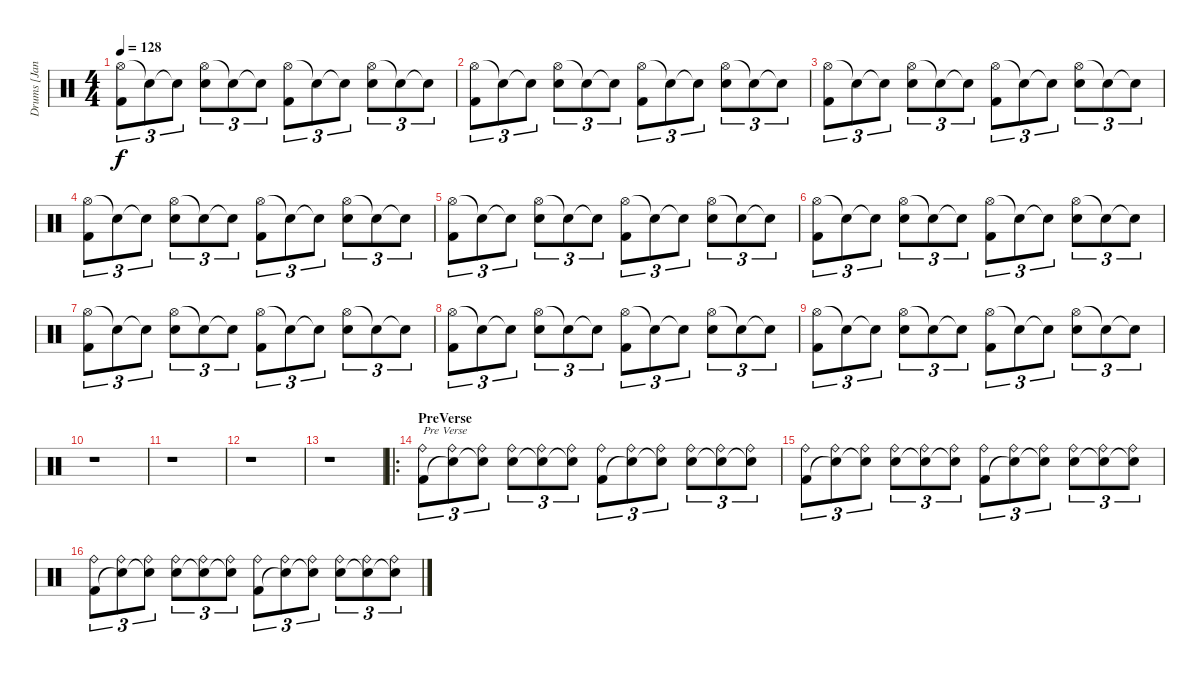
\track ("Drums [Janne Saarenpaa]" "Drums [Jan") {instrument percussion}
\staff {score}
\articulation defaults
\ts (4 4)
\tempo 128
\clef neutral
\ks c
("Hi-Hat (open)" "Kick (hit) 2").8{tu (3 2) dy f} "Snare (hit)"{t}.8{tu (3 2)} "Snare (hit)"{t}.8{tu (3 2)} ("Hi-Hat (open)" "Electric Snare (hit)").8{tu (3 2)} "Snare (hit)"{t}.8{tu (3 2)} "Snare (hit)"{t}.8{tu (3 2)} ("Hi-Hat (open)" "Kick (hit) 2").8{tu (3 2)} "Snare (hit)"{t}.8{tu (3 2)} "Snare (hit)"{t}.8{tu (3 2)} ("Hi-Hat (open)" "Electric Snare (hit)").8{tu (3 2)} "Snare (hit)"{t}.8{tu (3 2)} "Snare (hit)"{t}.8{tu (3 2)} |
("Hi-Hat (open)" "Kick (hit) 2").8{tu (3 2)} "Snare (hit)"{t}.8{tu (3 2)} "Snare (hit)"{t}.8{tu (3 2)} ("Hi-Hat (open)" "Electric Snare (hit)").8{tu (3 2)} "Snare (hit)"{t}.8{tu (3 2)} "Snare (hit)"{t}.8{tu (3 2)} ("Hi-Hat (open)" "Kick (hit) 2").8{tu (3 2)} "Snare (hit)"{t}.8{tu (3 2)} "Snare (hit)"{t}.8{tu (3 2)} ("Hi-Hat (open)" "Electric Snare (hit)").8{tu (3 2)} "Snare (hit)"{t}.8{tu (3 2)} "Snare (hit)"{t}.8{tu (3 2)} |
("Hi-Hat (open)" "Kick (hit) 2").8{tu (3 2)} "Snare (hit)"{t}.8{tu (3 2)} "Snare (hit)"{t}.8{tu (3 2)} ("Hi-Hat (open)" "Electric Snare (hit)").8{tu (3 2)} "Snare (hit)"{t}.8{tu (3 2)} "Snare (hit)"{t}.8{tu (3 2)} ("Hi-Hat (open)" "Kick (hit) 2").8{tu (3 2)} "Snare (hit)"{t}.8{tu (3 2)} "Snare (hit)"{t}.8{tu (3 2)} ("Hi-Hat (open)" "Electric Snare (hit)").8{tu (3 2)} "Snare (hit)"{t}.8{tu (3 2)} "Snare (hit)"{t}.8{tu (3 2)} |
("Hi-Hat (open)" "Kick (hit) 2").8{tu (3 2)} "Snare (hit)"{t}.8{tu (3 2)} "Snare (hit)"{t}.8{tu (3 2)} ("Hi-Hat (open)" "Electric Snare (hit)").8{tu (3 2)} "Snare (hit)"{t}.8{tu (3 2)} "Snare (hit)"{t}.8{tu (3 2)} ("Hi-Hat (open)" "Kick (hit) 2").8{tu (3 2)} "Snare (hit)"{t}.8{tu (3 2)} "Snare (hit)"{t}.8{tu (3 2)} ("Hi-Hat (open)" "Electric Snare (hit)").8{tu (3 2)} "Snare (hit)"{t}.8{tu (3 2)} "Snare (hit)"{t}.8{tu (3 2)} |
("Hi-Hat (open)" "Kick (hit) 2").8{tu (3 2)} "Snare (hit)"{t}.8{tu (3 2)} "Snare (hit)"{t}.8{tu (3 2)} ("Hi-Hat (open)" "Electric Snare (hit)").8{tu (3 2)} "Snare (hit)"{t}.8{tu (3 2)} "Snare (hit)"{t}.8{tu (3 2)} ("Hi-Hat (open)" "Kick (hit) 2").8{tu (3 2)} "Snare (hit)"{t}.8{tu (3 2)} "Snare (hit)"{t}.8{tu (3 2)} ("Hi-Hat (open)" "Electric Snare (hit)").8{tu (3 2)} "Snare (hit)"{t}.8{tu (3 2)} "Snare (hit)"{t}.8{tu (3 2)} |
("Hi-Hat (open)" "Kick (hit) 2").8{tu (3 2)} "Snare (hit)"{t}.8{tu (3 2)} "Snare (hit)"{t}.8{tu (3 2)} ("Hi-Hat (open)" "Electric Snare (hit)").8{tu (3 2)} "Snare (hit)"{t}.8{tu (3 2)} "Snare (hit)"{t}.8{tu (3 2)} ("Hi-Hat (open)" "Kick (hit) 2").8{tu (3 2)} "Snare (hit)"{t}.8{tu (3 2)} "Snare (hit)"{t}.8{tu (3 2)} ("Hi-Hat (open)" "Electric Snare (hit)").8{tu (3 2)} "Snare (hit)"{t}.8{tu (3 2)} "Snare (hit)"{t}.8{tu (3 2)} |
("Hi-Hat (open)" "Kick (hit) 2").8{tu (3 2)} "Snare (hit)"{t}.8{tu (3 2)} "Snare (hit)"{t}.8{tu (3 2)} ("Hi-Hat (open)" "Electric Snare (hit)").8{tu (3 2)} "Snare (hit)"{t}.8{tu (3 2)} "Snare (hit)"{t}.8{tu (3 2)} ("Hi-Hat (open)" "Kick (hit) 2").8{tu (3 2)} "Snare (hit)"{t}.8{tu (3 2)} "Snare (hit)"{t}.8{tu (3 2)} ("Hi-Hat (open)" "Electric Snare (hit)").8{tu (3 2)} "Snare (hit)"{t}.8{tu (3 2)} "Snare (hit)"{t}.8{tu (3 2)} |
("Hi-Hat (open)" "Kick (hit) 2").8{tu (3 2)} "Snare (hit)"{t}.8{tu (3 2)} "Snare (hit)"{t}.8{tu (3 2)} ("Hi-Hat (open)" "Electric Snare (hit)").8{tu (3 2)} "Snare (hit)"{t}.8{tu (3 2)} "Snare (hit)"{t}.8{tu (3 2)} ("Hi-Hat (open)" "Kick (hit) 2").8{tu (3 2)} "Snare (hit)"{t}.8{tu (3 2)} "Snare (hit)"{t}.8{tu (3 2)} ("Hi-Hat (open)" "Electric Snare (hit)").8{tu (3 2)} "Snare (hit)"{t}.8{tu (3 2)} "Snare (hit)"{t}.8{tu (3 2)} |
("Hi-Hat (open)" "Kick (hit) 2").8{tu (3 2)} "Snare (hit)"{t}.8{tu (3 2)} "Snare (hit)"{t}.8{tu (3 2)} ("Hi-Hat (open)" "Electric Snare (hit)").8{tu (3 2)} "Snare (hit)"{t}.8{tu (3 2)} "Snare (hit)"{t}.8{tu (3 2)} ("Hi-Hat (open)" "Kick (hit) 2").8{tu (3 2)} "Snare (hit)"{t}.8{tu (3 2)} "Snare (hit)"{t}.8{tu (3 2)} ("Hi-Hat (open)" "Electric Snare (hit)").8{tu (3 2)} "Snare (hit)"{t}.8{tu (3 2)} "Snare (hit)"{t}.8{tu (3 2)} |
r.1 |
r.1 |
r.1 |
r.1 |
\ro
\section ("" "PreVerse")
("Ride (bell)" "Kick (hit) 2").8{tu (3 2) txt "Pre Verse"} ("Ride (bell)" "Snare (hit)"{t}).8{tu (3 2)} ("Ride (bell)" "Snare (hit)"{t}).8{tu (3 2)} ("Ride (bell)" "Electric Snare (hit)").8{tu (3 2)} ("Ride (bell)" "Snare (hit)"{t}).8{tu (3 2)} ("Ride (bell)" "Snare (hit)"{t}).8{tu (3 2)} ("Ride (bell)" "Kick (hit) 2").8{tu (3 2)} ("Ride (bell)" "Snare (hit)"{t}).8{tu (3 2)} ("Ride (bell)" "Snare (hit)"{t}).8{tu (3 2)} ("Ride (bell)" "Electric Snare (hit)").8{tu (3 2)} ("Ride (bell)" "Snare (hit)"{t}).8{tu (3 2)} ("Ride (bell)" "Snare (hit)"{t}).8{tu (3 2)} |
("Ride (bell)" "Kick (hit) 2").8{tu (3 2)} ("Ride (bell)" "Snare (hit)"{t}).8{tu (3 2)} ("Ride (bell)" "Snare (hit)"{t}).8{tu (3 2)} ("Ride (bell)" "Electric Snare (hit)").8{tu (3 2)} ("Ride (bell)" "Snare (hit)"{t}).8{tu (3 2)} ("Ride (bell)" "Snare (hit)"{t}).8{tu (3 2)} ("Ride (bell)" "Kick (hit) 2").8{tu (3 2)} ("Ride (bell)" "Snare (hit)"{t}).8{tu (3 2)} ("Ride (bell)" "Snare (hit)"{t}).8{tu (3 2)} ("Ride (bell)" "Electric Snare (hit)").8{tu (3 2)} ("Ride (bell)" "Snare (hit)"{t}).8{tu (3 2)} ("Ride (bell)" "Snare (hit)"{t}).8{tu (3 2)} |
("Ride (bell)" "Kick (hit) 2").8{tu (3 2)} ("Ride (bell)" "Snare (hit)"{t}).8{tu (3 2)} ("Ride (bell)" "Snare (hit)"{t}).8{tu (3 2)} ("Ride (bell)" "Electric Snare (hit)").8{tu (3 2)} ("Ride (bell)" "Snare (hit)"{t}).8{tu (3 2)} ("Ride (bell)" "Snare (hit)"{t}).8{tu (3 2)} ("Ride (bell)" "Kick (hit) 2").8{tu (3 2)} ("Ride (bell)" "Snare (hit)"{t}).8{tu (3 2)} ("Ride (bell)" "Snare (hit)"{t}).8{tu (3 2)} ("Ride (bell)" "Electric Snare (hit)").8{tu (3 2)} ("Ride (bell)" "Snare (hit)"{t}).8{tu (3 2)} ("Ride (bell)" "Snare (hit)"{t}).8{tu (3 2)}
